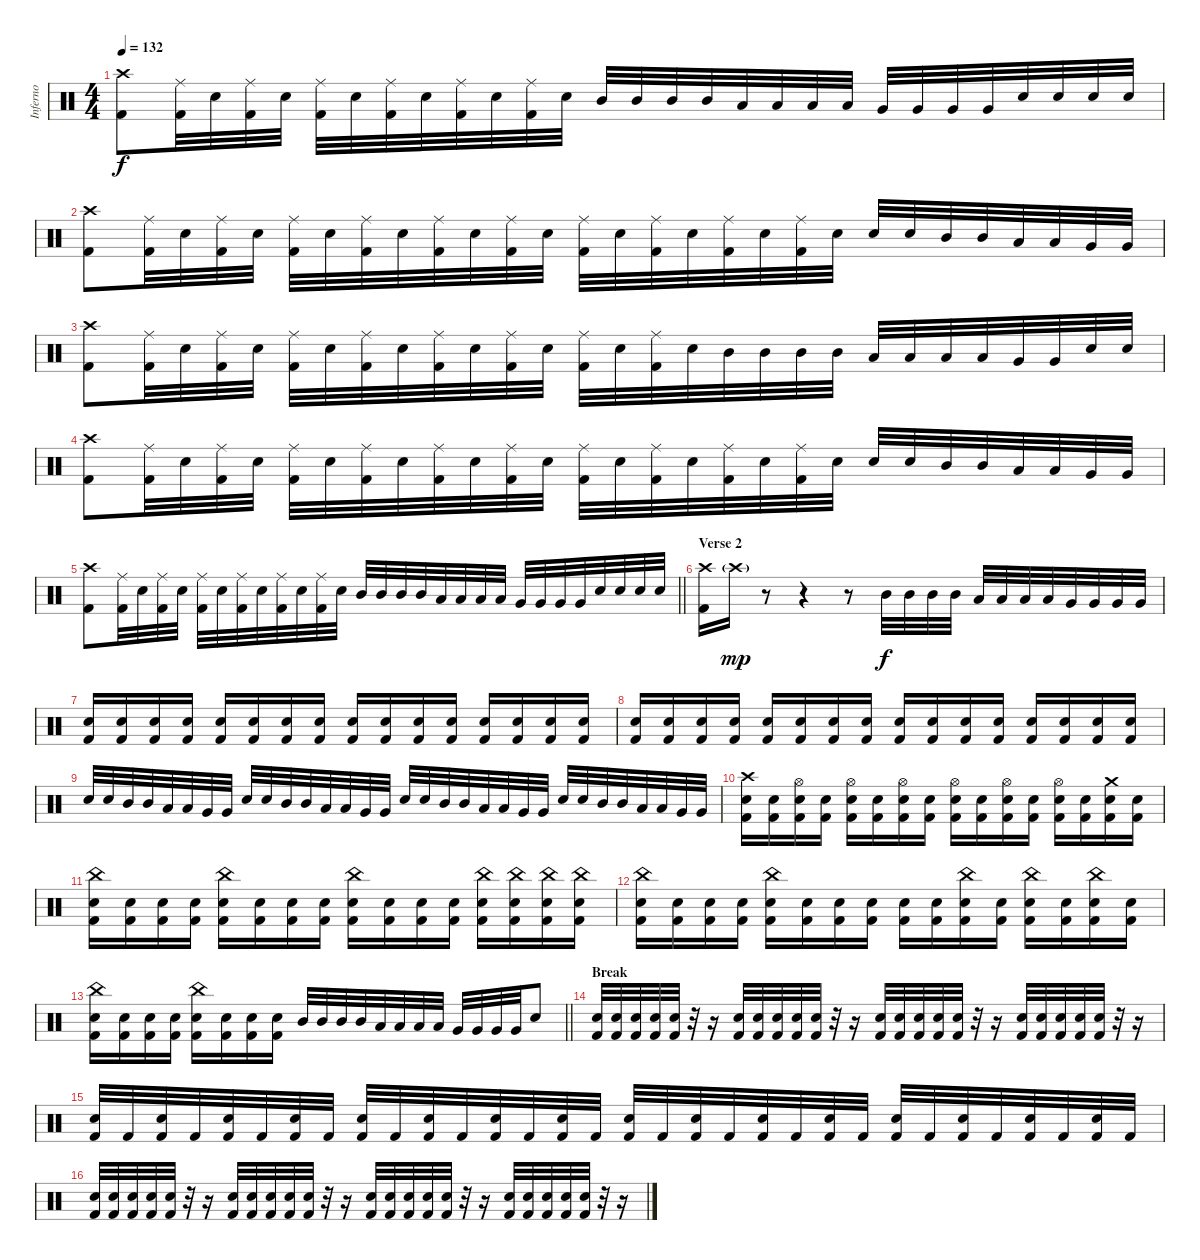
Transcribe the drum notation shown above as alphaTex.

\track ("Inferno" "Inferno") {instrument percussion}
\staff {score}
\articulation defaults
\ts (4 4)
\tempo 132
\clef neutral
\ks c
("Crash high (hit)" "Kick (hit) 2").8{dy f} ("Ride (middle)" "Kick (hit) 2").32 "Electric Snare (hit)".32 ("Ride (middle)" "Kick (hit) 2").32 "Electric Snare (hit)".32 ("Ride (middle)" "Kick (hit) 2").32 "Electric Snare (hit)".32 ("Ride (middle)" "Kick (hit) 2").32 "Electric Snare (hit)".32 ("Ride (middle)" "Kick (hit) 2").32 "Electric Snare (hit)".32 ("Ride (middle)" "Kick (hit) 2").32 "Electric Snare (hit)".32 "Mid Tom (hit)".32 "Mid Tom (hit)".32 "Mid Tom (hit)".32 "Mid Tom (hit)".32 "Low Tom (hit)".32 "Low Tom (hit)".32 "Low Tom (hit)".32 "Low Tom (hit)".32 "Very Low Tom (hit)".32 "Very Low Tom (hit)".32 "Very Low Tom (hit)".32 "Very Low Tom (hit)".32 "Electric Snare (hit)".32 "Electric Snare (hit)".32 "Electric Snare (hit)".32 "Electric Snare (hit)".32 |
("Crash high (hit)" "Kick (hit) 2").8 ("Ride (middle)" "Kick (hit) 2").32 "Electric Snare (hit)".32 ("Ride (middle)" "Kick (hit) 2").32 "Electric Snare (hit)".32 ("Ride (middle)" "Kick (hit) 2").32 "Electric Snare (hit)".32 ("Ride (middle)" "Kick (hit) 2").32 "Electric Snare (hit)".32 ("Ride (middle)" "Kick (hit) 2").32 "Electric Snare (hit)".32 ("Ride (middle)" "Kick (hit) 2").32 "Electric Snare (hit)".32 ("Ride (middle)" "Kick (hit) 2").32 "Electric Snare (hit)".32 ("Ride (middle)" "Kick (hit) 2").32 "Electric Snare (hit)".32 ("Ride (middle)" "Kick (hit) 2").32 "Electric Snare (hit)".32 ("Ride (middle)" "Kick (hit) 2").32 "Electric Snare (hit)".32 "Electric Snare (hit)".32 "Electric Snare (hit)".32 "Mid Tom (hit)".32 "Mid Tom (hit)".32 "Low Tom (hit)".32 "Low Tom (hit)".32 "Very Low Tom (hit)".32 "Very Low Tom (hit)".32 |
("Crash high (hit)" "Kick (hit) 2").8 ("Ride (middle)" "Kick (hit) 2").32 "Electric Snare (hit)".32 ("Ride (middle)" "Kick (hit) 2").32 "Electric Snare (hit)".32 ("Ride (middle)" "Kick (hit) 2").32 "Electric Snare (hit)".32 ("Ride (middle)" "Kick (hit) 2").32 "Electric Snare (hit)".32 ("Ride (middle)" "Kick (hit) 2").32 "Electric Snare (hit)".32 ("Ride (middle)" "Kick (hit) 2").32 "Electric Snare (hit)".32 ("Ride (middle)" "Kick (hit) 2").32 "Electric Snare (hit)".32 ("Ride (middle)" "Kick (hit) 2").32 "Electric Snare (hit)".32 "Mid Tom (hit)".32 "Mid Tom (hit)".32 "Mid Tom (hit)".32 "Mid Tom (hit)".32 "Low Tom (hit)".32 "Low Tom (hit)".32 "Low Tom (hit)".32 "Low Tom (hit)".32 "Very Low Tom (hit)".32 "Very Low Tom (hit)".32 "Electric Snare (hit)".32 "Electric Snare (hit)".32 |
("Crash high (hit)" "Kick (hit) 2").8 ("Ride (middle)" "Kick (hit) 2").32 "Electric Snare (hit)".32 ("Ride (middle)" "Kick (hit) 2").32 "Electric Snare (hit)".32 ("Ride (middle)" "Kick (hit) 2").32 "Electric Snare (hit)".32 ("Ride (middle)" "Kick (hit) 2").32 "Electric Snare (hit)".32 ("Ride (middle)" "Kick (hit) 2").32 "Electric Snare (hit)".32 ("Ride (middle)" "Kick (hit) 2").32 "Electric Snare (hit)".32 ("Ride (middle)" "Kick (hit) 2").32 "Electric Snare (hit)".32 ("Ride (middle)" "Kick (hit) 2").32 "Electric Snare (hit)".32 ("Ride (middle)" "Kick (hit) 2").32 "Electric Snare (hit)".32 ("Ride (middle)" "Kick (hit) 2").32 "Electric Snare (hit)".32 "Electric Snare (hit)".32 "Electric Snare (hit)".32 "Mid Tom (hit)".32 "Mid Tom (hit)".32 "Low Tom (hit)".32 "Low Tom (hit)".32 "Very Low Tom (hit)".32 "Very Low Tom (hit)".32 |
\barLineRight lightlight
("Crash high (hit)" "Kick (hit) 2").8 ("Ride (middle)" "Kick (hit) 2").32 "Electric Snare (hit)".32 ("Ride (middle)" "Kick (hit) 2").32 "Electric Snare (hit)".32 ("Ride (middle)" "Kick (hit) 2").32 "Electric Snare (hit)".32 ("Ride (middle)" "Kick (hit) 2").32 "Electric Snare (hit)".32 ("Ride (middle)" "Kick (hit) 2").32 "Electric Snare (hit)".32 ("Ride (middle)" "Kick (hit) 2").32 "Electric Snare (hit)".32 "Mid Tom (hit)".32 "Mid Tom (hit)".32 "Mid Tom (hit)".32 "Mid Tom (hit)".32 "Low Tom (hit)".32 "Low Tom (hit)".32 "Low Tom (hit)".32 "Low Tom (hit)".32 "Very Low Tom (hit)".32 "Very Low Tom (hit)".32 "Very Low Tom (hit)".32 "Very Low Tom (hit)".32 "Electric Snare (hit)".32 "Electric Snare (hit)".32 "Electric Snare (hit)".32 "Electric Snare (hit)".32 |
\section ("" "Verse 2")
("Crash high (hit)" "Kick (hit) 2").16 "Crash high (hit)"{g}.16{dy mp} r.8 r.4 r.8 "Mid Tom (hit)".32{dy f} "Mid Tom (hit)".32 "Mid Tom (hit)".32 "Mid Tom (hit)".32 "Low Tom (hit)".32 "Low Tom (hit)".32 "Low Tom (hit)".32 "Low Tom (hit)".32 "Very Low Tom (hit)".32 "Very Low Tom (hit)".32 "Very Low Tom (hit)".32 "Very Low Tom (hit)".32 |
("Electric Snare (hit)" "Kick (hit) 2").16 ("Electric Snare (hit)" "Kick (hit) 2").16 ("Electric Snare (hit)" "Kick (hit) 2").16 ("Electric Snare (hit)" "Kick (hit) 2").16 ("Electric Snare (hit)" "Kick (hit) 2").16 ("Electric Snare (hit)" "Kick (hit) 2").16 ("Electric Snare (hit)" "Kick (hit) 2").16 ("Electric Snare (hit)" "Kick (hit) 2").16 ("Electric Snare (hit)" "Kick (hit) 2").16 ("Electric Snare (hit)" "Kick (hit) 2").16 ("Electric Snare (hit)" "Kick (hit) 2").16 ("Electric Snare (hit)" "Kick (hit) 2").16 ("Electric Snare (hit)" "Kick (hit) 2").16 ("Electric Snare (hit)" "Kick (hit) 2").16 ("Electric Snare (hit)" "Kick (hit) 2").16 ("Electric Snare (hit)" "Kick (hit) 2").16 |
("Electric Snare (hit)" "Kick (hit) 2").16 ("Electric Snare (hit)" "Kick (hit) 2").16 ("Electric Snare (hit)" "Kick (hit) 2").16 ("Electric Snare (hit)" "Kick (hit) 2").16 ("Electric Snare (hit)" "Kick (hit) 2").16 ("Electric Snare (hit)" "Kick (hit) 2").16 ("Electric Snare (hit)" "Kick (hit) 2").16 ("Electric Snare (hit)" "Kick (hit) 2").16 ("Electric Snare (hit)" "Kick (hit) 2").16 ("Electric Snare (hit)" "Kick (hit) 2").16 ("Electric Snare (hit)" "Kick (hit) 2").16 ("Electric Snare (hit)" "Kick (hit) 2").16 ("Electric Snare (hit)" "Kick (hit) 2").16 ("Electric Snare (hit)" "Kick (hit) 2").16 ("Electric Snare (hit)" "Kick (hit) 2").16 ("Electric Snare (hit)" "Kick (hit) 2").16 |
"Electric Snare (hit)".32 "Electric Snare (hit)".32 "Mid Tom (hit)".32 "Mid Tom (hit)".32 "Low Tom (hit)".32 "Low Tom (hit)".32 "Very Low Tom (hit)".32 "Very Low Tom (hit)".32 "Electric Snare (hit)".32 "Electric Snare (hit)".32 "Mid Tom (hit)".32 "Mid Tom (hit)".32 "Low Tom (hit)".32 "Low Tom (hit)".32 "Very Low Tom (hit)".32 "Very Low Tom (hit)".32 "Electric Snare (hit)".32 "Electric Snare (hit)".32 "Mid Tom (hit)".32 "Mid Tom (hit)".32 "Low Tom (hit)".32 "Low Tom (hit)".32 "Very Low Tom (hit)".32 "Very Low Tom (hit)".32 "Electric Snare (hit)".32 "Electric Snare (hit)".32 "Mid Tom (hit)".32 "Mid Tom (hit)".32 "Low Tom (hit)".32 "Low Tom (hit)".32 "Very Low Tom (hit)".32 "Very Low Tom (hit)".32 |
("Crash high (hit)" "Electric Snare (hit)" "Kick (hit) 2").16 ("Electric Snare (hit)" "Kick (hit) 2").16 ("Hi-Hat (open)" "Electric Snare (hit)" "Kick (hit) 2").16 ("Electric Snare (hit)" "Kick (hit) 2").16 ("Hi-Hat (open)" "Electric Snare (hit)" "Kick (hit) 2").16 ("Electric Snare (hit)" "Kick (hit) 2").16 ("Hi-Hat (open)" "Electric Snare (hit)" "Kick (hit) 2").16 ("Electric Snare (hit)" "Kick (hit) 2").16 ("Hi-Hat (open)" "Electric Snare (hit)" "Kick (hit) 2").16 ("Electric Snare (hit)" "Kick (hit) 2").16 ("Hi-Hat (open)" "Electric Snare (hit)" "Kick (hit) 2").16 ("Electric Snare (hit)" "Kick (hit) 2").16 ("Hi-Hat (open)" "Electric Snare (hit)" "Kick (hit) 2").16 ("Electric Snare (hit)" "Kick (hit) 2").16 ("Crash medium (hit)" "Electric Snare (hit)" "Kick (hit) 2").16 ("Electric Snare (hit)" "Kick (hit) 2").16 |
("China (hit)" "Electric Snare (hit)" "Kick (hit) 2").16 ("Electric Snare (hit)" "Kick (hit) 2").16 ("Electric Snare (hit)" "Kick (hit) 2").16 ("Electric Snare (hit)" "Kick (hit) 2").16 ("China (hit)" "Electric Snare (hit)" "Kick (hit) 2").16 ("Electric Snare (hit)" "Kick (hit) 2").16 ("Electric Snare (hit)" "Kick (hit) 2").16 ("Electric Snare (hit)" "Kick (hit) 2").16 ("China (hit)" "Electric Snare (hit)" "Kick (hit) 2").16 ("Electric Snare (hit)" "Kick (hit) 2").16 ("Electric Snare (hit)" "Kick (hit) 2").16 ("Electric Snare (hit)" "Kick (hit) 2").16 ("China (hit)" "Electric Snare (hit)" "Kick (hit) 2").16 ("China (hit)" "Electric Snare (hit)" "Kick (hit) 2").16 ("China (hit)" "Electric Snare (hit)" "Kick (hit) 2").16 ("China (hit)" "Electric Snare (hit)" "Kick (hit) 2").16 |
("China (hit)" "Electric Snare (hit)" "Kick (hit) 2").16 ("Electric Snare (hit)" "Kick (hit) 2").16 ("Electric Snare (hit)" "Kick (hit) 2").16 ("Electric Snare (hit)" "Kick (hit) 2").16 ("China (hit)" "Electric Snare (hit)" "Kick (hit) 2").16 ("Electric Snare (hit)" "Kick (hit) 2").16 ("Electric Snare (hit)" "Kick (hit) 2").16 ("Electric Snare (hit)" "Kick (hit) 2").16 ("Electric Snare (hit)" "Kick (hit) 2").16 ("Electric Snare (hit)" "Kick (hit) 2").16 ("China (hit)" "Electric Snare (hit)" "Kick (hit) 2").16 ("Electric Snare (hit)" "Kick (hit) 2").16 ("China (hit)" "Electric Snare (hit)" "Kick (hit) 2").16 ("Electric Snare (hit)" "Kick (hit) 2").16 ("China (hit)" "Electric Snare (hit)" "Kick (hit) 2").16 ("Electric Snare (hit)" "Kick (hit) 2").16 |
\barLineRight lightlight
("China (hit)" "Electric Snare (hit)" "Kick (hit) 2").16 ("Electric Snare (hit)" "Kick (hit) 2").16 ("Electric Snare (hit)" "Kick (hit) 2").16 ("Electric Snare (hit)" "Kick (hit) 2").16 ("China (hit)" "Electric Snare (hit)" "Kick (hit) 2").16 ("Electric Snare (hit)" "Kick (hit) 2").16 ("Electric Snare (hit)" "Kick (hit) 2").16 ("Electric Snare (hit)" "Kick (hit) 2").16 "Mid Tom (hit)".32 "Mid Tom (hit)".32 "Mid Tom (hit)".32 "Mid Tom (hit)".32 "Low Tom (hit)".32 "Low Tom (hit)".32 "Low Tom (hit)".32 "Low Tom (hit)".32 "Very Low Tom (hit)".32 "Very Low Tom (hit)".32 "Very Low Tom (hit)".32 "Very Low Tom (hit)".32 "Electric Snare (hit)".8 |
\section ("" "Break")
("Electric Snare (hit)" "Kick (hit) 2").32 ("Electric Snare (hit)" "Kick (hit) 2").32 ("Electric Snare (hit)" "Kick (hit) 2").32 ("Electric Snare (hit)" "Kick (hit) 2").32 ("Electric Snare (hit)" "Kick (hit) 2").32 r.32 r.16 ("Electric Snare (hit)" "Kick (hit) 2").32 ("Electric Snare (hit)" "Kick (hit) 2").32 ("Electric Snare (hit)" "Kick (hit) 2").32 ("Electric Snare (hit)" "Kick (hit) 2").32 ("Electric Snare (hit)" "Kick (hit) 2").32 r.32 r.16 ("Electric Snare (hit)" "Kick (hit) 2").32 ("Electric Snare (hit)" "Kick (hit) 2").32 ("Electric Snare (hit)" "Kick (hit) 2").32 ("Electric Snare (hit)" "Kick (hit) 2").32 ("Electric Snare (hit)" "Kick (hit) 2").32 r.32 r.16 ("Electric Snare (hit)" "Kick (hit) 2").32 ("Electric Snare (hit)" "Kick (hit) 2").32 ("Electric Snare (hit)" "Kick (hit) 2").32 ("Electric Snare (hit)" "Kick (hit) 2").32 ("Electric Snare (hit)" "Kick (hit) 2").32 r.32 r.16 |
("Electric Snare (hit)" "Kick (hit) 2").32 "Kick (hit) 2".32 ("Electric Snare (hit)" "Kick (hit) 2").32 "Kick (hit) 2".32 ("Electric Snare (hit)" "Kick (hit) 2").32 "Kick (hit) 2".32 ("Electric Snare (hit)" "Kick (hit) 2").32 "Kick (hit) 2".32 ("Electric Snare (hit)" "Kick (hit) 2").32 "Kick (hit) 2".32 ("Electric Snare (hit)" "Kick (hit) 2").32 "Kick (hit) 2".32 ("Electric Snare (hit)" "Kick (hit) 2").32 "Kick (hit) 2".32 ("Electric Snare (hit)" "Kick (hit) 2").32 "Kick (hit) 2".32 ("Electric Snare (hit)" "Kick (hit) 2").32 "Kick (hit) 2".32 ("Electric Snare (hit)" "Kick (hit) 2").32 "Kick (hit) 2".32 ("Electric Snare (hit)" "Kick (hit) 2").32 "Kick (hit) 2".32 ("Electric Snare (hit)" "Kick (hit) 2").32 "Kick (hit) 2".32 ("Electric Snare (hit)" "Kick (hit) 2").32 "Kick (hit) 2".32 ("Electric Snare (hit)" "Kick (hit) 2").32 "Kick (hit) 2".32 ("Electric Snare (hit)" "Kick (hit) 2").32 "Kick (hit) 2".32 ("Electric Snare (hit)" "Kick (hit) 2").32 "Kick (hit) 2".32 |
("Electric Snare (hit)" "Kick (hit) 2").32 ("Electric Snare (hit)" "Kick (hit) 2").32 ("Electric Snare (hit)" "Kick (hit) 2").32 ("Electric Snare (hit)" "Kick (hit) 2").32 ("Electric Snare (hit)" "Kick (hit) 2").32 r.32 r.16 ("Electric Snare (hit)" "Kick (hit) 2").32 ("Electric Snare (hit)" "Kick (hit) 2").32 ("Electric Snare (hit)" "Kick (hit) 2").32 ("Electric Snare (hit)" "Kick (hit) 2").32 ("Electric Snare (hit)" "Kick (hit) 2").32 r.32 r.16 ("Electric Snare (hit)" "Kick (hit) 2").32 ("Electric Snare (hit)" "Kick (hit) 2").32 ("Electric Snare (hit)" "Kick (hit) 2").32 ("Electric Snare (hit)" "Kick (hit) 2").32 ("Electric Snare (hit)" "Kick (hit) 2").32 r.32 r.16 ("Electric Snare (hit)" "Kick (hit) 2").32 ("Electric Snare (hit)" "Kick (hit) 2").32 ("Electric Snare (hit)" "Kick (hit) 2").32 ("Electric Snare (hit)" "Kick (hit) 2").32 ("Electric Snare (hit)" "Kick (hit) 2").32 r.32 r.16
